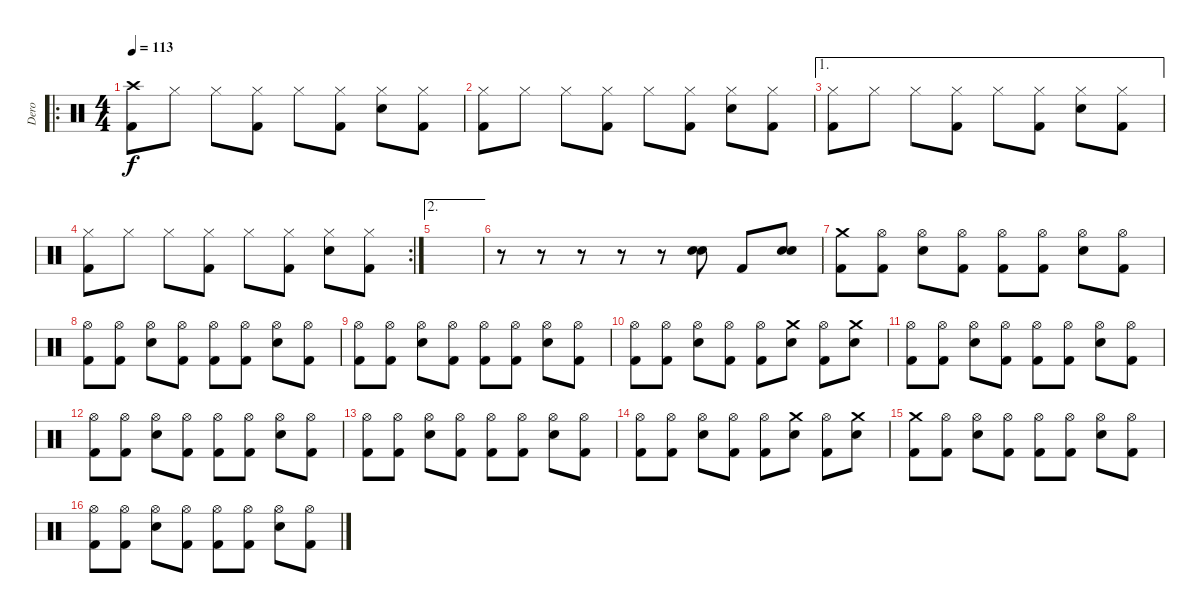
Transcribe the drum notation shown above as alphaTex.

\track ("Dero" "Dero") {instrument percussion}
\staff {score}
\articulation defaults
\ro
\ts (4 4)
\tempo 113
\clef neutral
\ks c
("Crash high (hit)" "Kick (hit) 2").8{dy f} "Hi-Hat (closed)".8 "Hi-Hat (closed)".8 ("Hi-Hat (closed)" "Kick (hit) 2").8 "Hi-Hat (closed)".8 ("Hi-Hat (closed)" "Kick (hit) 2").8 ("Hi-Hat (closed)" "Electric Snare (hit)").8 ("Hi-Hat (closed)" "Kick (hit) 2").8 |
("Hi-Hat (closed)" "Kick (hit) 2").8 "Hi-Hat (closed)".8 "Hi-Hat (closed)".8 ("Hi-Hat (closed)" "Kick (hit) 2").8 "Hi-Hat (closed)".8 ("Hi-Hat (closed)" "Kick (hit) 2").8 ("Hi-Hat (closed)" "Electric Snare (hit)").8 ("Hi-Hat (closed)" "Kick (hit) 2").8 |
\ae 1
("Hi-Hat (closed)" "Kick (hit) 2").8 "Hi-Hat (closed)".8 "Hi-Hat (closed)".8 ("Hi-Hat (closed)" "Kick (hit) 2").8 "Hi-Hat (closed)".8 ("Hi-Hat (closed)" "Kick (hit) 2").8 ("Hi-Hat (closed)" "Electric Snare (hit)").8 ("Hi-Hat (closed)" "Kick (hit) 2").8 |
\rc 2
("Hi-Hat (closed)" "Kick (hit) 2").8 "Hi-Hat (closed)".8 "Hi-Hat (closed)".8 ("Hi-Hat (closed)" "Kick (hit) 2").8 "Hi-Hat (closed)".8 ("Hi-Hat (closed)" "Kick (hit) 2").8 ("Hi-Hat (closed)" "Electric Snare (hit)").8 ("Hi-Hat (closed)" "Kick (hit) 2").8 |
\ae 2
|
r.8 r.8 r.8 r.8 r.8 ("Electric Snare (hit)" "Electric Snare (hit)").8 "Kick (hit) 2".8 ("Electric Snare (hit)" "Electric Snare (hit)").8 |
("Crash medium (hit)" "Kick (hit) 2").8 ("Hi-Hat (open)" "Kick (hit) 2").8 ("Hi-Hat (open)" "Electric Snare (hit)").8 ("Hi-Hat (open)" "Kick (hit) 2").8 ("Hi-Hat (open)" "Kick (hit) 2").8 ("Hi-Hat (open)" "Kick (hit) 2").8 ("Hi-Hat (open)" "Electric Snare (hit)").8 ("Hi-Hat (open)" "Kick (hit) 2").8 |
("Hi-Hat (open)" "Kick (hit) 2").8 ("Hi-Hat (open)" "Kick (hit) 2").8 ("Hi-Hat (open)" "Electric Snare (hit)").8 ("Hi-Hat (open)" "Kick (hit) 2").8 ("Hi-Hat (open)" "Kick (hit) 2").8 ("Hi-Hat (open)" "Kick (hit) 2").8 ("Hi-Hat (open)" "Electric Snare (hit)").8 ("Hi-Hat (open)" "Kick (hit) 2").8 |
("Hi-Hat (open)" "Kick (hit) 2").8 ("Hi-Hat (open)" "Kick (hit) 2").8 ("Hi-Hat (open)" "Electric Snare (hit)").8 ("Hi-Hat (open)" "Kick (hit) 2").8 ("Hi-Hat (open)" "Kick (hit) 2").8 ("Hi-Hat (open)" "Kick (hit) 2").8 ("Hi-Hat (open)" "Electric Snare (hit)").8 ("Hi-Hat (open)" "Kick (hit) 2").8 |
("Hi-Hat (open)" "Kick (hit) 2").8 ("Hi-Hat (open)" "Kick (hit) 2").8 ("Hi-Hat (open)" "Electric Snare (hit)").8 ("Hi-Hat (open)" "Kick (hit) 2").8 ("Hi-Hat (open)" "Kick (hit) 2").8 ("Crash medium (hit)" "Electric Snare (hit)").8 ("Hi-Hat (open)" "Kick (hit) 2").8 ("Crash medium (hit)" "Electric Snare (hit)").8 |
("Hi-Hat (open)" "Kick (hit) 2").8 ("Hi-Hat (open)" "Kick (hit) 2").8 ("Hi-Hat (open)" "Electric Snare (hit)").8 ("Hi-Hat (open)" "Kick (hit) 2").8 ("Hi-Hat (open)" "Kick (hit) 2").8 ("Hi-Hat (open)" "Kick (hit) 2").8 ("Hi-Hat (open)" "Electric Snare (hit)").8 ("Hi-Hat (open)" "Kick (hit) 2").8 |
("Hi-Hat (open)" "Kick (hit) 2").8 ("Hi-Hat (open)" "Kick (hit) 2").8 ("Hi-Hat (open)" "Electric Snare (hit)").8 ("Hi-Hat (open)" "Kick (hit) 2").8 ("Hi-Hat (open)" "Kick (hit) 2").8 ("Hi-Hat (open)" "Kick (hit) 2").8 ("Hi-Hat (open)" "Electric Snare (hit)").8 ("Hi-Hat (open)" "Kick (hit) 2").8 |
("Hi-Hat (open)" "Kick (hit) 2").8 ("Hi-Hat (open)" "Kick (hit) 2").8 ("Hi-Hat (open)" "Electric Snare (hit)").8 ("Hi-Hat (open)" "Kick (hit) 2").8 ("Hi-Hat (open)" "Kick (hit) 2").8 ("Hi-Hat (open)" "Kick (hit) 2").8 ("Hi-Hat (open)" "Electric Snare (hit)").8 ("Hi-Hat (open)" "Kick (hit) 2").8 |
("Hi-Hat (open)" "Kick (hit) 2").8 ("Hi-Hat (open)" "Kick (hit) 2").8 ("Hi-Hat (open)" "Electric Snare (hit)").8 ("Hi-Hat (open)" "Kick (hit) 2").8 ("Hi-Hat (open)" "Kick (hit) 2").8 ("Crash medium (hit)" "Electric Snare (hit)").8 ("Hi-Hat (open)" "Kick (hit) 2").8 ("Crash medium (hit)" "Electric Snare (hit)").8 |
("Crash medium (hit)" "Kick (hit) 2").8 ("Hi-Hat (open)" "Kick (hit) 2").8 ("Hi-Hat (open)" "Electric Snare (hit)").8 ("Hi-Hat (open)" "Kick (hit) 2").8 ("Hi-Hat (open)" "Kick (hit) 2").8 ("Hi-Hat (open)" "Kick (hit) 2").8 ("Hi-Hat (open)" "Electric Snare (hit)").8 ("Hi-Hat (open)" "Kick (hit) 2").8 |
("Hi-Hat (open)" "Kick (hit) 2").8 ("Hi-Hat (open)" "Kick (hit) 2").8 ("Hi-Hat (open)" "Electric Snare (hit)").8 ("Hi-Hat (open)" "Kick (hit) 2").8 ("Hi-Hat (open)" "Kick (hit) 2").8 ("Hi-Hat (open)" "Kick (hit) 2").8 ("Hi-Hat (open)" "Electric Snare (hit)").8 ("Hi-Hat (open)" "Kick (hit) 2").8
